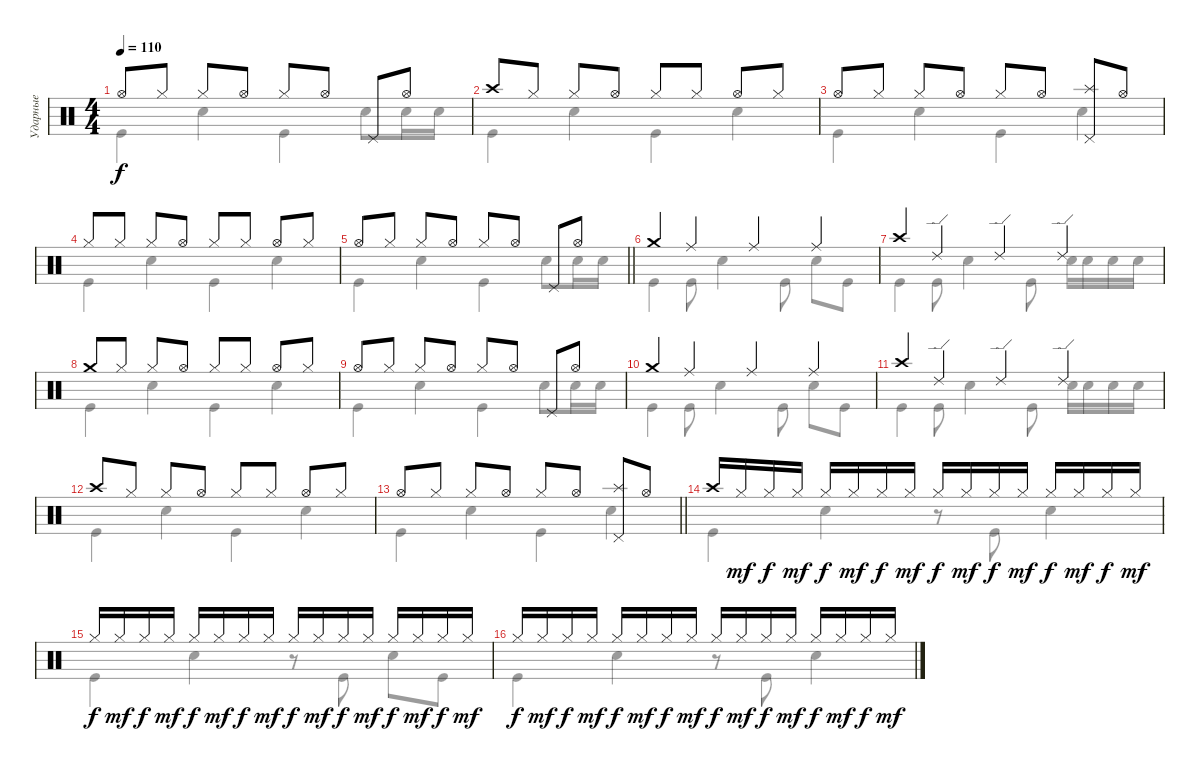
\track ("Ударные" "Ударные") {instrument percussion}
\staff {score}
\articulation defaults
\voice
\ts (4 4)
\tempo 110
\clef neutral
\ks c "Hi-Hat (open)".8{dy f} "Hi-Hat (closed)".8 "Hi-Hat (closed)".8 "Hi-Hat (open)".8 "Hi-Hat (closed)".8 "Hi-Hat (open)".8 "Pedal Hi-Hat (hit)".8 "Hi-Hat (open)".8
|
"Crash high (hit)".8 "Hi-Hat (closed)".8 "Hi-Hat (closed)".8 "Hi-Hat (open)".8 "Hi-Hat (closed)".8 "Hi-Hat (closed)".8 "Hi-Hat (open)".8 "Hi-Hat (closed)".8 |
"Hi-Hat (open)".8 "Hi-Hat (closed)".8 "Hi-Hat (closed)".8 "Hi-Hat (open)".8 "Hi-Hat (closed)".8 "Hi-Hat (open)".8 ("Pedal Hi-Hat (hit)" "Splash (hit)").8 "Hi-Hat (open)".8 |
"Hi-Hat (closed)".8 "Hi-Hat (closed)".8 "Hi-Hat (closed)".8 "Hi-Hat (open)".8 "Hi-Hat (closed)".8 "Hi-Hat (closed)".8 "Hi-Hat (open)".8 "Hi-Hat (closed)".8 |
\barLineRight lightlight "Hi-Hat (open)".8 "Hi-Hat (closed)".8 "Hi-Hat (closed)".8 "Hi-Hat (open)".8 "Hi-Hat (closed)".8 "Hi-Hat (open)".8 "Pedal Hi-Hat (hit)".8 "Hi-Hat (open)".8
|
"Crash medium (hit)".4 "Ride (middle)".4 "Ride (middle)".4 "Ride (middle)".4 |
"Crash high (hit)".4 "Ride (edge) 2".4 "Ride (edge) 2".4 "Ride (edge) 2".4 |
"Crash medium (hit)".8 "Hi-Hat (closed)".8 "Hi-Hat (closed)".8 "Hi-Hat (open)".8 "Hi-Hat (closed)".8 "Hi-Hat (closed)".8 "Hi-Hat (open)".8 "Hi-Hat (closed)".8 |
"Hi-Hat (open)".8 "Hi-Hat (closed)".8 "Hi-Hat (closed)".8 "Hi-Hat (open)".8 "Hi-Hat (closed)".8 "Hi-Hat (open)".8 "Pedal Hi-Hat (hit)".8 "Hi-Hat (open)".8 |
"Crash medium (hit)".4 "Ride (middle)".4 "Ride (middle)".4 "Ride (middle)".4 |
"Crash high (hit)".4 "Ride (edge) 2".4 "Ride (edge) 2".4 "Ride (edge) 2".4 |
"Crash high (hit)".8 "Hi-Hat (closed)".8 "Hi-Hat (closed)".8 "Hi-Hat (open)".8 "Hi-Hat (closed)".8 "Hi-Hat (closed)".8 "Hi-Hat (open)".8 "Hi-Hat (closed)".8 |
\barLineRight lightlight "Hi-Hat (open)".8 "Hi-Hat (closed)".8 "Hi-Hat (closed)".8 "Hi-Hat (open)".8 "Hi-Hat (closed)".8 "Hi-Hat (open)".8
("Pedal Hi-Hat (hit)" "Splash (hit)").8 "Hi-Hat (open)".8 |
"Crash high (hit)".16 "Hi-Hat (closed)".16{dy mf} "Hi-Hat (closed)".16{dy f} "Hi-Hat (closed)".16{dy mf} "Hi-Hat (closed)".16{dy f} "Hi-Hat (closed)".16{dy mf} "Hi-Hat (closed)".16{dy f} "Hi-Hat (closed)".16{dy mf} "Hi-Hat (closed)".16{dy f} "Hi-Hat (closed)".16{dy mf} "Hi-Hat (closed)".16{dy f} "Hi-Hat (closed)".16{dy mf} "Hi-Hat (closed)".16{dy f} "Hi-Hat (closed)".16{dy mf} "Hi-Hat (closed)".16{dy f} "Hi-Hat (closed)".16{dy mf} |
"Hi-Hat (closed)".16{dy f} "Hi-Hat (closed)".16{dy mf} "Hi-Hat (closed)".16{dy f} "Hi-Hat (closed)".16{dy mf} "Hi-Hat (closed)".16{dy f} "Hi-Hat (closed)".16{dy mf} "Hi-Hat (closed)".16{dy f} "Hi-Hat (closed)".16{dy mf} "Hi-Hat (closed)".16{dy f} "Hi-Hat (closed)".16{dy mf} "Hi-Hat (closed)".16{dy f} "Hi-Hat (closed)".16{dy mf} "Hi-Hat (closed)".16{dy f} "Hi-Hat (closed)".16{dy mf} "Hi-Hat (closed)".16{dy f} "Hi-Hat (closed)".16{dy mf} |
"Hi-Hat (closed)".16{dy f} "Hi-Hat (closed)".16{dy mf} "Hi-Hat (closed)".16{dy f} "Hi-Hat (closed)".16{dy mf} "Hi-Hat (closed)".16{dy f} "Hi-Hat (closed)".16{dy mf} "Hi-Hat (closed)".16{dy f} "Hi-Hat (closed)".16{dy mf} "Hi-Hat (closed)".16{dy f} "Hi-Hat (closed)".16{dy mf} "Hi-Hat (closed)".16{dy f} "Hi-Hat (closed)".16{dy mf} "Hi-Hat (closed)".16{dy f} "Hi-Hat (closed)".16{dy mf} "Hi-Hat (closed)".16{dy f} "Hi-Hat (closed)".16{dy mf}
\voice
\clef neutral
\ottava regular
\simile none
\ks c "Kick (hit)".4{dy f} "Snare (hit) 2".4 "Kick (hit)".4 "Snare (hit) 2".8 "Snare (hit) 2".16 "Snare (hit) 2".16
|
"Kick (hit)".4 "Snare (hit) 2".4 "Kick (hit)".4 "Snare (hit) 2".4 |
"Kick (hit)".4 "Snare (hit) 2".4 "Kick (hit)".4 "Snare (hit) 2".4 |
"Kick (hit)".4 "Snare (hit) 2".4 "Kick (hit)".4 "Snare (hit) 2".4 |
\barLineRight lightlight "Kick (hit)".4 "Snare (hit) 2".4 "Kick (hit)".4 "Snare (hit) 2".8 "Snare (hit) 2".16 "Snare (hit) 2".16
|
"Kick (hit)".4 "Kick (hit)".8 "Snare (hit) 2".4 "Kick (hit)".8 "Snare (hit) 2".8 "Kick (hit)".8 |
"Kick (hit)".4 "Kick (hit)".8 "Snare (hit) 2".4 "Kick (hit)".8 "Snare (hit) 2".16 "Snare (hit) 2".16 "Snare (hit) 2".16 "Snare (hit) 2".16 |
"Kick (hit)".4 "Snare (hit) 2".4 "Kick (hit)".4 "Snare (hit) 2".4 |
"Kick (hit)".4 "Snare (hit) 2".4 "Kick (hit)".4 "Snare (hit) 2".8 "Snare (hit) 2".16 "Snare (hit) 2".16 |
"Kick (hit)".4 "Kick (hit)".8 "Snare (hit) 2".4 "Kick (hit)".8 "Snare (hit) 2".8 "Kick (hit)".8 |
"Kick (hit)".4 "Kick (hit)".8 "Snare (hit) 2".4 "Kick (hit)".8 "Snare (hit) 2".16 "Snare (hit) 2".16 "Snare (hit) 2".16 "Snare (hit) 2".16 |
"Kick (hit)".4 "Snare (hit) 2".4 "Kick (hit)".4 "Snare (hit) 2".4 |
\barLineRight lightlight "Kick (hit)".4 "Snare (hit) 2".4 "Kick (hit)".4 "Snare (hit) 2".4
|
"Kick (hit)".4 "Snare (hit) 2".4 r.8 "Kick (hit)".8 "Snare (hit) 2".4 |
"Kick (hit)".4 "Snare (hit) 2".4 r.8 "Kick (hit)".8 "Snare (hit) 2".8 "Kick (hit)".8 |
"Kick (hit)".4 "Snare (hit) 2".4 r.8 "Kick (hit)".8 "Snare (hit) 2".4
